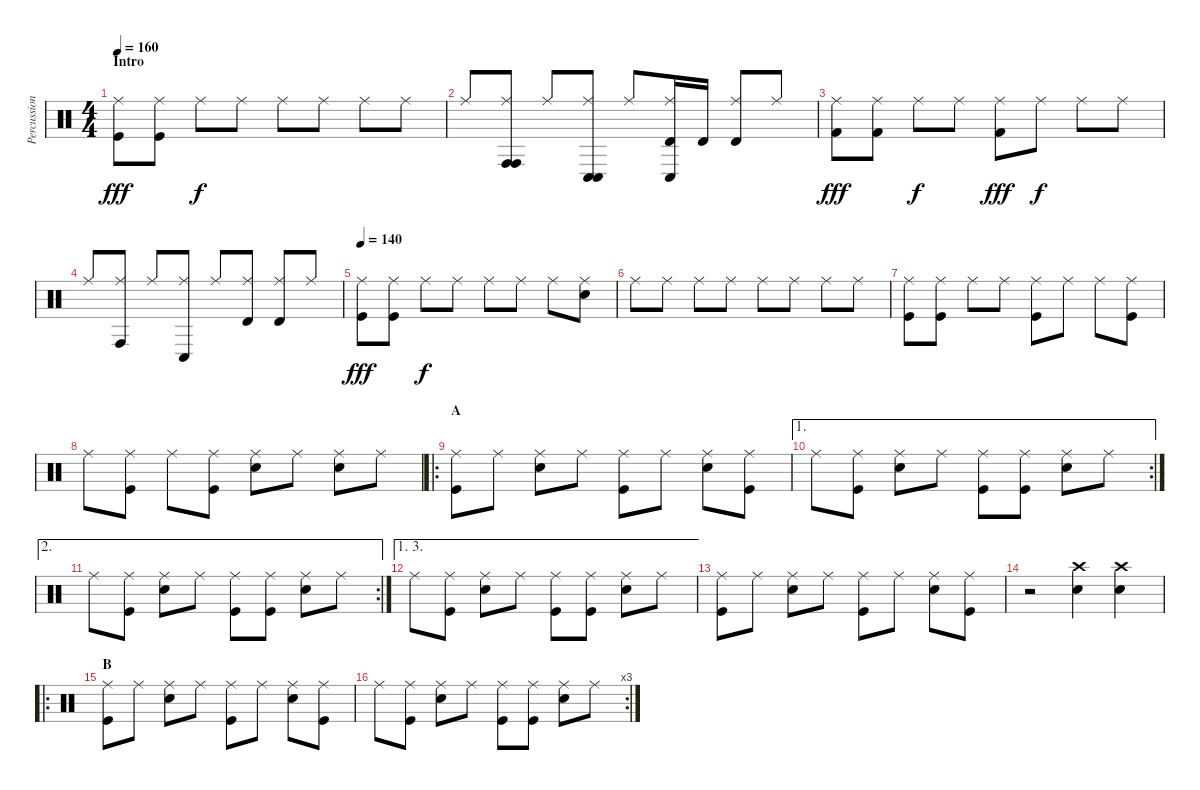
\track ("Percussions" "Percussion") {instrument percussion}
\staff {score}
\articulation defaults
\ts (4 4)
\section ("" "Intro")
\tempo 160
\tempo 140
\tempo 160
\clef neutral
\ks c
("Ride (middle)" "Kick (hit)").8{dy fff} ("Ride (middle)" "Kick (hit)").8 "Ride (middle)".8{dy f} "Ride (middle)".8 "Ride (middle)".8 "Ride (middle)".8 "Ride (middle)".8 "Ride (middle)".8 |
"Ride (middle)".8 ("Ride (middle)" "Conga high (hit)" "Conga high (hit)").8 "Ride (middle)".8 ("Ride (middle)" "Conga low (hit)" "Conga low (hit)").8 "Ride (middle)".8 ("Ride (middle)" "Conga low (hit)" "Timbale high (hit)").16 "Timbale high (hit)".16 ("Ride (middle)" "Timbale high (hit)").8 "Ride (middle)".8 |
("Ride (middle)" "Kick (hit) 2").8{dy fff} ("Ride (middle)" "Kick (hit) 2").8 "Ride (middle)".8{dy f} "Ride (middle)".8 ("Ride (middle)" "Kick (hit) 2").8{dy fff} "Ride (middle)".8{dy f} "Ride (middle)".8 "Ride (middle)".8 |
"Ride (middle)".8 ("Ride (middle)" "Conga high (hit)").8 "Ride (middle)".8 ("Ride (middle)" "Conga low (hit)").8 "Ride (middle)".8 ("Ride (middle)" "Timbale high (hit)").8 ("Ride (middle)" "Timbale high (hit)").8 "Ride (middle)".8 |
\tempo 140
("Ride (middle)" "Kick (hit)").8{dy fff} ("Ride (middle)" "Kick (hit)").8 "Ride (middle)".8{dy f} "Ride (middle)".8 "Ride (middle)".8 "Ride (middle)".8 "Ride (middle)".8 ("Ride (middle)" "Snare (hit) 2").8 |
"Ride (middle)".8 "Ride (middle)".8 "Ride (middle)".8 "Ride (middle)".8 "Ride (middle)".8 "Ride (middle)".8 "Ride (middle)".8 "Ride (middle)".8 |
("Ride (middle)" "Kick (hit)").8 ("Ride (middle)" "Kick (hit)").8 "Ride (middle)".8 "Ride (middle)".8 ("Ride (middle)" "Kick (hit)").8 "Ride (middle)".8 "Ride (middle)".8 ("Ride (middle)" "Kick (hit)").8 |
"Ride (middle)".8 ("Ride (middle)" "Kick (hit)").8 "Ride (middle)".8 ("Ride (middle)" "Kick (hit)").8 ("Ride (middle)" "Snare (hit) 2").8 "Ride (middle)".8 ("Ride (middle)" "Snare (hit) 2").8 "Ride (middle)".8 |
\ro
\section ("" "A")
("Ride (middle)" "Kick (hit)").8 "Ride (middle)".8 ("Ride (middle)" "Snare (hit) 2").8 "Ride (middle)".8 ("Ride (middle)" "Kick (hit)").8 "Ride (middle)".8 ("Ride (middle)" "Snare (hit) 2").8 ("Ride (middle)" "Kick (hit)").8 |
\ae 1
\rc 2 "Ride (middle)".8
("Ride (middle)" "Kick (hit)").8 ("Ride (middle)" "Snare (hit) 2").8 "Ride (middle)".8 ("Ride (middle)" "Kick (hit)").8 ("Ride (middle)" "Kick (hit)").8 ("Ride (middle)" "Snare (hit) 2").8 "Ride (middle)".8 |
\ae 2
\rc 2 "Ride (middle)".8
("Ride (middle)" "Kick (hit)").8 ("Ride (middle)" "Snare (hit) 2").8 "Ride (middle)".8 ("Ride (middle)" "Kick (hit)").8 ("Ride (middle)" "Kick (hit)").8 ("Ride (middle)" "Snare (hit) 2").8 "Ride (middle)".8 |
\ae (1 3)
"Ride (middle)".8 ("Ride (middle)" "Kick (hit)").8 ("Ride (middle)" "Snare (hit) 2").8 "Ride (middle)".8 ("Ride (middle)" "Kick (hit)").8 ("Ride (middle)" "Kick (hit)").8 ("Ride (middle)" "Snare (hit) 2").8 "Ride (middle)".8 |
("Ride (middle)" "Kick (hit)").8 "Ride (middle)".8 ("Ride (middle)" "Snare (hit) 2").8 "Ride (middle)".8 ("Ride (middle)" "Kick (hit)").8 "Ride (middle)".8 ("Ride (middle)" "Snare (hit) 2").8 ("Ride (middle)" "Kick (hit)").8 |
r.2 ("Crash high (hit)" "Snare (hit) 2").4 ("Crash high (hit)" "Snare (hit) 2").4 |
\ro
\section ("" "B")
("Ride (middle)" "Kick (hit)").8 "Ride (middle)".8 ("Ride (middle)" "Snare (hit) 2").8 "Ride (middle)".8 ("Ride (middle)" "Kick (hit)").8 "Ride (middle)".8 ("Ride (middle)" "Snare (hit) 2").8 ("Ride (middle)" "Kick (hit)").8 |
\rc 3 "Ride (middle)".8
("Ride (middle)" "Kick (hit)").8 ("Ride (middle)" "Snare (hit) 2").8 "Ride (middle)".8 ("Ride (middle)" "Kick (hit)").8 ("Ride (middle)" "Kick (hit)").8 ("Ride (middle)" "Snare (hit) 2").8 "Ride (middle)".8
